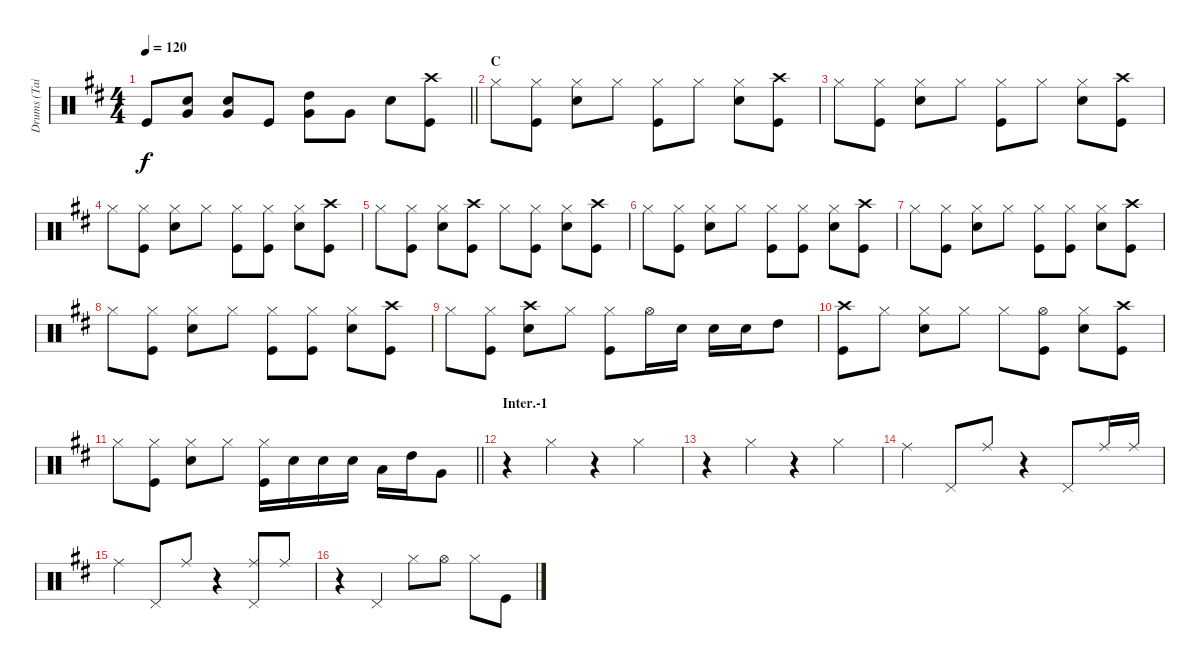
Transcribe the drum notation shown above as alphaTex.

\track ("Drums (Tainaka Ritsu)" "Drums (Tai") {instrument percussion}
\staff {score}
\articulation defaults
\ts (4 4)
\tempo 120
\clef neutral
\barLineRight lightlight
\ks d "Kick (hit)".8{dy f}
("Snare (hit) 2" "Very Low Tom (hit)").8 ("Snare (hit) 2" "Very Low Tom (hit)").8 "Kick (hit)".8 ("High Tom (hit)" "Very Low Tom (hit)").8 "Very Low Tom (hit)".8 "Snare (hit) 2".8 ("Crash high (hit)" "Kick (hit)").8 |
\section ("" "C")
"Hi-Hat (closed)".8 ("Hi-Hat (closed)" "Kick (hit)").8 ("Hi-Hat (closed)" "Snare (hit) 2").8 "Hi-Hat (closed)".8 ("Hi-Hat (closed)" "Kick (hit)").8 "Hi-Hat (closed)".8 ("Hi-Hat (closed)" "Snare (hit) 2").8 ("Crash high (hit)" "Kick (hit)").8 |
"Hi-Hat (closed)".8 ("Hi-Hat (closed)" "Kick (hit)").8 ("Hi-Hat (closed)" "Snare (hit) 2").8 "Hi-Hat (closed)".8 ("Hi-Hat (closed)" "Kick (hit)").8 "Hi-Hat (closed)".8 ("Hi-Hat (closed)" "Snare (hit) 2").8 ("Crash high (hit)" "Kick (hit)").8 |
"Hi-Hat (closed)".8 ("Hi-Hat (closed)" "Kick (hit)").8 ("Hi-Hat (closed)" "Snare (hit) 2").8 "Hi-Hat (closed)".8 ("Hi-Hat (closed)" "Kick (hit)").8 ("Hi-Hat (closed)" "Kick (hit)").8 ("Hi-Hat (closed)" "Snare (hit) 2").8 ("Crash high (hit)" "Kick (hit)").8 |
"Hi-Hat (closed)".8 ("Hi-Hat (closed)" "Kick (hit)").8 ("Hi-Hat (closed)" "Snare (hit) 2").8 ("Crash high (hit)" "Kick (hit)").8 "Hi-Hat (closed)".8 ("Hi-Hat (closed)" "Kick (hit)").8 ("Hi-Hat (closed)" "Snare (hit) 2").8 ("Crash high (hit)" "Kick (hit)").8 |
"Hi-Hat (closed)".8 ("Hi-Hat (closed)" "Kick (hit)").8 ("Hi-Hat (closed)" "Snare (hit) 2").8 "Hi-Hat (closed)".8 ("Hi-Hat (closed)" "Kick (hit)").8 ("Hi-Hat (closed)" "Kick (hit)").8 ("Hi-Hat (closed)" "Snare (hit) 2").8 ("Crash high (hit)" "Kick (hit)").8 |
"Hi-Hat (closed)".8 ("Hi-Hat (closed)" "Kick (hit)").8 ("Hi-Hat (closed)" "Snare (hit) 2").8 "Hi-Hat (closed)".8 ("Hi-Hat (closed)" "Kick (hit)").8 ("Hi-Hat (closed)" "Kick (hit)").8 ("Hi-Hat (closed)" "Snare (hit) 2").8 ("Crash high (hit)" "Kick (hit)").8 |
"Hi-Hat (closed)".8 ("Hi-Hat (closed)" "Kick (hit)").8 ("Hi-Hat (closed)" "Snare (hit) 2").8 "Hi-Hat (closed)".8 ("Hi-Hat (closed)" "Kick (hit)").8 ("Hi-Hat (closed)" "Kick (hit)").8 ("Hi-Hat (closed)" "Snare (hit) 2").8 ("Crash high (hit)" "Kick (hit)").8 |
"Hi-Hat (closed)".8 ("Hi-Hat (closed)" "Kick (hit)").8 ("Crash high (hit)" "Snare (hit) 2").8 "Hi-Hat (closed)".8 ("Hi-Hat (closed)" "Kick (hit)").8 "Hi-Hat (open)".16 "Snare (hit) 2".16 "Snare (hit) 2".16 "Snare (hit) 2".16 "High Tom (hit)".8 |
("Crash high (hit)" "Kick (hit)").8 "Hi-Hat (closed)".8 ("Hi-Hat (closed)" "Snare (hit) 2").8 "Hi-Hat (closed)".8 "Hi-Hat (closed)".8 ("Hi-Hat (open)" "Kick (hit)").8 ("Hi-Hat (closed)" "Snare (hit) 2").8 ("Crash high (hit)" "Kick (hit)").8 |
\barLineRight lightlight "Hi-Hat (closed)".8
("Hi-Hat (closed)" "Kick (hit)").8 ("Hi-Hat (closed)" "Snare (hit) 2").8 "Hi-Hat (closed)".8 ("Hi-Hat (closed)" "Kick (hit)").16 "Snare (hit) 2".16 "Snare (hit) 2".16 "Snare (hit) 2".16 "Low Tom (hit)".16 "High Tom (hit)".16 "Very Low Tom (hit)".8 |
\section ("" "Inter.-1")
r.4 "Hi-Hat (closed)".4 r.4 "Hi-Hat (closed)".4 |
r.4 "Hi-Hat (closed)".4 r.4 "Hi-Hat (closed)".4 |
"Ride (middle)".4 "Pedal Hi-Hat (hit)".8 "Ride (middle)".8 r.4 "Pedal Hi-Hat (hit)".8 "Ride (middle)".16 "Ride (middle)".16 |
"Ride (middle)".4 "Pedal Hi-Hat (hit)".8 "Ride (middle)".8 r.4 ("Ride (middle)" "Pedal Hi-Hat (hit)").8 "Ride (middle)".8 |
r.4 "Pedal Hi-Hat (hit)".4 "Hi-Hat (closed)".8 "Hi-Hat (open)".8 "Hi-Hat (closed)".8 "Kick (hit)".8
